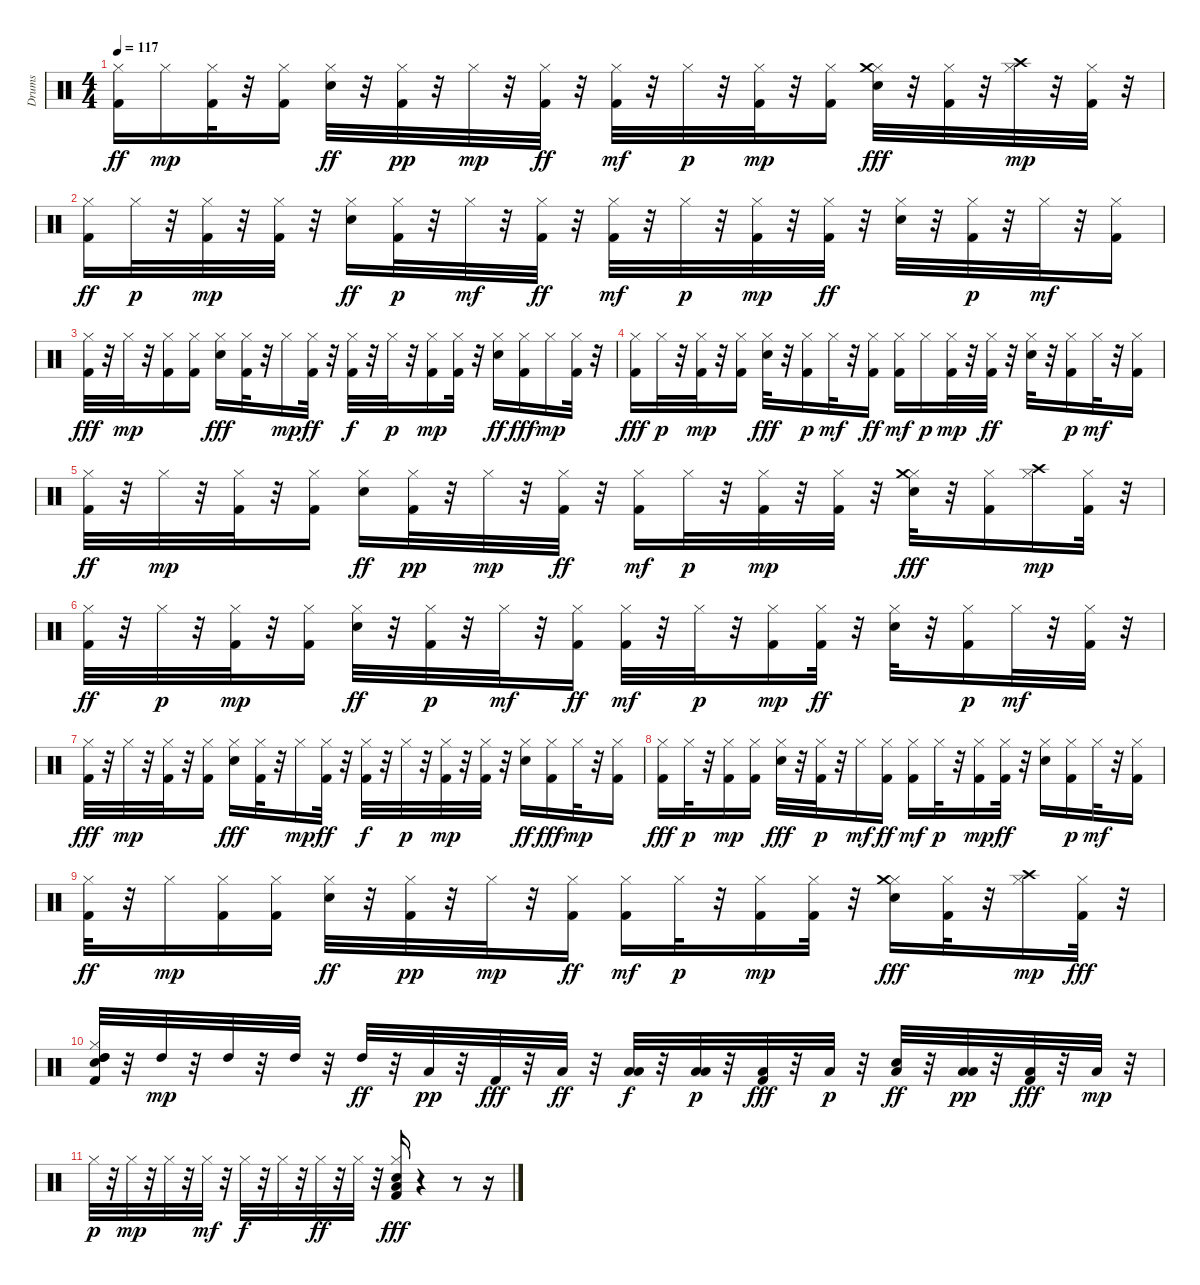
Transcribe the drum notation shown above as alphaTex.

\track ("Drums" "Drums") {instrument percussion}
\staff {score}
\articulation defaults
\ts (4 4)
\tempo 117
\clef neutral
\ks c
("Kick (hit) 2" "Hi-Hat (closed)").16{dy ff} "Hi-Hat (closed)".16{dy mp} ("Kick (hit) 2" "Hi-Hat (closed)").32 r.32 ("Kick (hit) 2" "Hi-Hat (closed)").16 ("Hi-Hat (closed)" "Snare (hit) 2").32{dy ff} r.32 ("Kick (hit) 2" "Hi-Hat (closed)").32{dy pp} r.32 "Hi-Hat (closed)".32{dy mp} r.32 ("Kick (hit) 2" "Hi-Hat (closed)").32{dy ff} r.32 ("Kick (hit) 2" "Hi-Hat (closed)").32{dy mf} r.32 "Hi-Hat (closed)".32{dy p} r.32 ("Kick (hit) 2" "Hi-Hat (closed)").32{dy mp} r.32 ("Kick (hit) 2" "Hi-Hat (closed)").16 ("Hi-Hat (closed)" "Crash medium (hit)" "Snare (hit) 2").32{dy fff} r.32 ("Hi-Hat (closed)" "Kick (hit) 2").32 r.32 ("Hi-Hat (closed)" "Crash high (hit)").32{dy mp} r.32 ("Kick (hit) 2" "Hi-Hat (closed)").32 r.32 |
("Kick (hit) 2" "Hi-Hat (closed)").16{dy ff} "Hi-Hat (closed)".32{dy p} r.32 ("Kick (hit) 2" "Hi-Hat (closed)").32{dy mp} r.32 ("Kick (hit) 2" "Hi-Hat (closed)").32 r.32 ("Hi-Hat (closed)" "Snare (hit) 2").16{dy ff} ("Kick (hit) 2" "Hi-Hat (closed)").32{dy p} r.32 "Hi-Hat (closed)".32{dy mf} r.32 ("Kick (hit) 2" "Hi-Hat (closed)").32{dy ff} r.32 ("Kick (hit) 2" "Hi-Hat (closed)").32{dy mf} r.32 "Hi-Hat (closed)".32{dy p} r.32 ("Kick (hit) 2" "Hi-Hat (closed)").32{dy mp} r.32 ("Kick (hit) 2" "Hi-Hat (closed)").32{dy ff} r.32 ("Hi-Hat (closed)" "Snare (hit) 2").32 r.32 ("Kick (hit) 2" "Hi-Hat (closed)").32{dy p} r.32 "Hi-Hat (closed)".32{dy mf} r.32 ("Kick (hit) 2" "Hi-Hat (closed)").16 |
("Hi-Hat (closed)" "Kick (hit) 2").32{dy fff} r.32 "Hi-Hat (closed)".32{dy mp} r.32 ("Kick (hit) 2" "Hi-Hat (closed)").16 ("Kick (hit) 2" "Hi-Hat (closed)").16 ("Hi-Hat (closed)" "Snare (hit) 2").16{dy fff} ("Hi-Hat (closed)" "Kick (hit) 2").32 r.32 "Hi-Hat (closed)".16{dy mp} ("Kick (hit) 2" "Hi-Hat (closed)").32{dy ff} r.32 ("Hi-Hat (closed)" "Kick (hit) 2").32{dy f} r.32 "Hi-Hat (closed)".32{dy p} r.32 ("Kick (hit) 2" "Hi-Hat (closed)").16{dy mp} ("Kick (hit) 2" "Hi-Hat (closed)").32 r.32 ("Hi-Hat (closed)" "Snare (hit) 2").16{dy ff} ("Hi-Hat (closed)" "Kick (hit) 2").16{dy fff} "Hi-Hat (closed)".16{dy mp} ("Kick (hit) 2" "Hi-Hat (closed)").32 r.32 |
("Hi-Hat (closed)" "Kick (hit) 2").16{dy fff} "Hi-Hat (closed)".32{dy p} r.32 ("Kick (hit) 2" "Hi-Hat (closed)").32{dy mp} r.32 ("Kick (hit) 2" "Hi-Hat (closed)").16 ("Hi-Hat (closed)" "Snare (hit) 2").32{dy fff} r.32 ("Kick (hit) 2" "Hi-Hat (closed)").16{dy p} "Hi-Hat (closed)".32{dy mf} r.32 ("Hi-Hat (closed)" "Kick (hit) 2").16{dy ff} ("Kick (hit) 2" "Hi-Hat (closed)").16{dy mf} "Hi-Hat (closed)".16{dy p} ("Kick (hit) 2" "Hi-Hat (closed)").32{dy mp} r.32 ("Kick (hit) 2" "Hi-Hat (closed)").32{dy ff} r.32 ("Hi-Hat (closed)" "Snare (hit) 2").32 r.32 ("Kick (hit) 2" "Hi-Hat (closed)").16{dy p} "Hi-Hat (closed)".32{dy mf} r.32 ("Kick (hit) 2" "Hi-Hat (closed)").16 |
("Kick (hit) 2" "Hi-Hat (closed)").32{dy ff} r.32 "Hi-Hat (closed)".32{dy mp} r.32 ("Kick (hit) 2" "Hi-Hat (closed)").32 r.32 ("Kick (hit) 2" "Hi-Hat (closed)").16 ("Hi-Hat (closed)" "Snare (hit) 2").16{dy ff} ("Kick (hit) 2" "Hi-Hat (closed)").32{dy pp} r.32 "Hi-Hat (closed)".32{dy mp} r.32 ("Kick (hit) 2" "Hi-Hat (closed)").32{dy ff} r.32 ("Kick (hit) 2" "Hi-Hat (closed)").16{dy mf} "Hi-Hat (closed)".32{dy p} r.32 ("Kick (hit) 2" "Hi-Hat (closed)").32{dy mp} r.32 ("Kick (hit) 2" "Hi-Hat (closed)").32 r.32 ("Hi-Hat (closed)" "Crash medium (hit)" "Snare (hit) 2").32{dy fff} r.32 ("Hi-Hat (closed)" "Kick (hit) 2").16 ("Hi-Hat (closed)" "Crash high (hit)").16{dy mp} ("Kick (hit) 2" "Hi-Hat (closed)").32 r.32 |
("Kick (hit) 2" "Hi-Hat (closed)").32{dy ff} r.32 "Hi-Hat (closed)".32{dy p} r.32 ("Kick (hit) 2" "Hi-Hat (closed)").32{dy mp} r.32 ("Kick (hit) 2" "Hi-Hat (closed)").16 ("Hi-Hat (closed)" "Snare (hit) 2").32{dy ff} r.32 ("Kick (hit) 2" "Hi-Hat (closed)").32{dy p} r.32 "Hi-Hat (closed)".32{dy mf} r.32 ("Kick (hit) 2" "Hi-Hat (closed)").16{dy ff} ("Kick (hit) 2" "Hi-Hat (closed)").32{dy mf} r.32 "Hi-Hat (closed)".32{dy p} r.32 ("Kick (hit) 2" "Hi-Hat (closed)").16{dy mp} ("Kick (hit) 2" "Hi-Hat (closed)").32{dy ff} r.32 ("Hi-Hat (closed)" "Snare (hit) 2").32 r.32 ("Kick (hit) 2" "Hi-Hat (closed)").16{dy p} "Hi-Hat (closed)".32{dy mf} r.32 ("Kick (hit) 2" "Hi-Hat (closed)").32 r.32 |
("Hi-Hat (closed)" "Kick (hit) 2").32{dy fff} r.32 "Hi-Hat (closed)".32{dy mp} r.32 ("Kick (hit) 2" "Hi-Hat (closed)").32 r.32 ("Kick (hit) 2" "Hi-Hat (closed)").16 ("Hi-Hat (closed)" "Snare (hit) 2").16{dy fff} ("Hi-Hat (closed)" "Kick (hit) 2").32 r.32 "Hi-Hat (closed)".16{dy mp} ("Kick (hit) 2" "Hi-Hat (closed)").32{dy ff} r.32 ("Hi-Hat (closed)" "Kick (hit) 2").32{dy f} r.32 "Hi-Hat (closed)".32{dy p} r.32 ("Kick (hit) 2" "Hi-Hat (closed)").32{dy mp} r.32 ("Kick (hit) 2" "Hi-Hat (closed)").32 r.32 ("Hi-Hat (closed)" "Snare (hit) 2").16{dy ff} ("Hi-Hat (closed)" "Kick (hit) 2").16{dy fff} "Hi-Hat (closed)".32{dy mp} r.32 ("Kick (hit) 2" "Hi-Hat (closed)").16 |
("Hi-Hat (closed)" "Kick (hit) 2").16{dy fff} "Hi-Hat (closed)".32{dy p} r.32 ("Kick (hit) 2" "Hi-Hat (closed)").16{dy mp} ("Kick (hit) 2" "Hi-Hat (closed)").16 ("Hi-Hat (closed)" "Snare (hit) 2").32{dy fff} r.32 ("Kick (hit) 2" "Hi-Hat (closed)").32{dy p} r.32 "Hi-Hat (closed)".16{dy mf} ("Kick (hit) 2" "Hi-Hat (closed)").16{dy ff} ("Kick (hit) 2" "Hi-Hat (closed)").16{dy mf} "Hi-Hat (closed)".32{dy p} r.32 ("Kick (hit) 2" "Hi-Hat (closed)").16{dy mp} ("Kick (hit) 2" "Hi-Hat (closed)").32{dy ff} r.32 ("Hi-Hat (closed)" "Snare (hit) 2").16 ("Kick (hit) 2" "Hi-Hat (closed)").16{dy p} "Hi-Hat (closed)".32{dy mf} r.32 ("Kick (hit) 2" "Hi-Hat (closed)").16 |
("Kick (hit) 2" "Hi-Hat (closed)").32{dy ff} r.32 "Hi-Hat (closed)".16{dy mp} ("Kick (hit) 2" "Hi-Hat (closed)").16 ("Kick (hit) 2" "Hi-Hat (closed)").16 ("Hi-Hat (closed)" "Snare (hit) 2").32{dy ff} r.32 ("Kick (hit) 2" "Hi-Hat (closed)").32{dy pp} r.32 "Hi-Hat (closed)".32{dy mp} r.32 ("Kick (hit) 2" "Hi-Hat (closed)").16{dy ff} ("Kick (hit) 2" "Hi-Hat (closed)").16{dy mf} "Hi-Hat (closed)".32{dy p} r.32 ("Kick (hit) 2" "Hi-Hat (closed)").16{dy mp} ("Kick (hit) 2" "Hi-Hat (closed)").32 r.32 ("Hi-Hat (closed)" "Crash medium (hit)" "Snare (hit) 2").16{dy fff} ("Hi-Hat (closed)" "Kick (hit) 2").32 r.32 ("Hi-Hat (closed)" "Crash high (hit)").16{dy mp} ("Hi-Hat (closed)" "Kick (hit) 2").32{dy fff} r.32 |
("High Tom (hit)" "High Tom (hit)" "Kick (hit) 2" "Hi-Hat (closed)" "Snare (hit) 2").32 r.32 "High Tom (hit)".32{dy mp} r.32 "High Tom (hit)".32 r.32 "High Tom (hit)".32 r.32 "High Tom (hit)".32{dy ff} r.32 "Low Tom (hit)".32{dy pp} r.32 "Kick (hit) 2".32{dy fff} r.32 "Low Tom (hit)".32{dy ff} r.32 ("Low Tom (hit)" "Low Tom (hit)").32{dy f} r.32 ("Low Tom (hit)" "Low Tom (hit)").32{dy p} r.32 ("Low Floor Tom (hit)" "Kick (hit) 2").32{dy fff} r.32 "Low Floor Tom (hit)".32{dy p} r.32 ("Low Floor Tom (hit)" "Snare (hit) 2").32{dy ff} r.32 ("Low Floor Tom (hit)" "Low Floor Tom (hit)").32{dy pp} r.32 ("Low Floor Tom (hit)" "Kick (hit) 2").32{dy fff} r.32 "Low Floor Tom (hit)".32{dy mp} r.32 |
"Hi-Hat (closed)".32{dy p} r.32 "Hi-Hat (closed)".32{dy mp} r.32 "Hi-Hat (closed)".32 r.32 "Hi-Hat (closed)".32{dy mf} r.32 "Hi-Hat (closed)".32{dy f} r.32 "Hi-Hat (closed)".32 r.32 "Hi-Hat (closed)".32{dy ff} r.32 "Hi-Hat (closed)".32 r.32 ("Kick (hit) 2" "Low Floor Tom (hit)" "Snare (hit) 2" "Hi-Hat (closed)").16{dy fff} r.4 r.8 r.16
